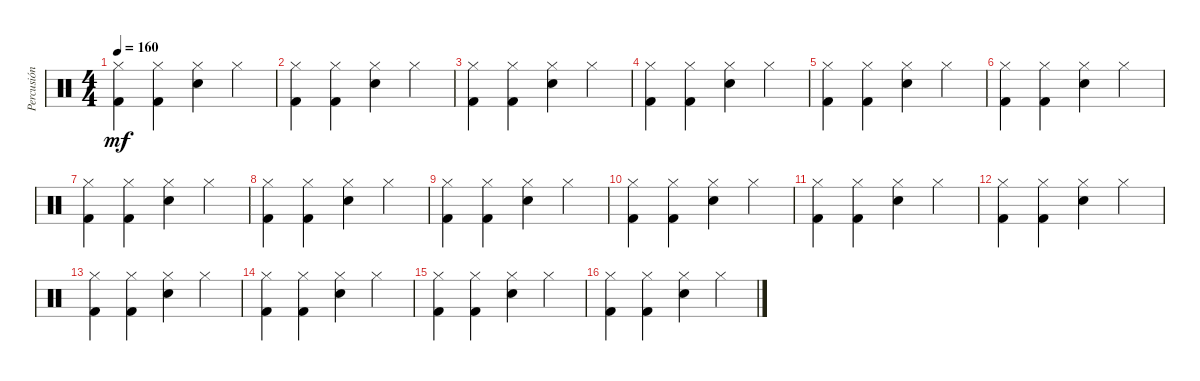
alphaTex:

\track ("Percusión" "Percusión") {instrument percussion}
\staff {score}
\articulation defaults
\ts (4 4)
\tempo 160
\clef neutral
\ks c
("Hi-Hat (closed)" "Kick (hit) 2").4{dy mf} ("Hi-Hat (closed)" "Kick (hit) 2").4 ("Hi-Hat (closed)" "Snare (hit) 2").4 "Hi-Hat (closed)".4 |
("Hi-Hat (closed)" "Kick (hit) 2").4 ("Hi-Hat (closed)" "Kick (hit) 2").4 ("Hi-Hat (closed)" "Snare (hit) 2").4 "Hi-Hat (closed)".4 |
("Hi-Hat (closed)" "Kick (hit) 2").4 ("Hi-Hat (closed)" "Kick (hit) 2").4 ("Hi-Hat (closed)" "Snare (hit) 2").4 "Hi-Hat (closed)".4 |
("Hi-Hat (closed)" "Kick (hit) 2").4 ("Hi-Hat (closed)" "Kick (hit) 2").4 ("Hi-Hat (closed)" "Snare (hit) 2").4 "Hi-Hat (closed)".4 |
("Hi-Hat (closed)" "Kick (hit) 2").4 ("Hi-Hat (closed)" "Kick (hit) 2").4 ("Hi-Hat (closed)" "Snare (hit) 2").4 "Hi-Hat (closed)".4 |
("Hi-Hat (closed)" "Kick (hit) 2").4 ("Hi-Hat (closed)" "Kick (hit) 2").4 ("Hi-Hat (closed)" "Snare (hit) 2").4 "Hi-Hat (closed)".4 |
("Hi-Hat (closed)" "Kick (hit) 2").4 ("Hi-Hat (closed)" "Kick (hit) 2").4 ("Hi-Hat (closed)" "Snare (hit) 2").4 "Hi-Hat (closed)".4 |
("Hi-Hat (closed)" "Kick (hit) 2").4 ("Hi-Hat (closed)" "Kick (hit) 2").4 ("Hi-Hat (closed)" "Snare (hit) 2").4 "Hi-Hat (closed)".4 |
("Hi-Hat (closed)" "Kick (hit) 2").4 ("Hi-Hat (closed)" "Kick (hit) 2").4 ("Hi-Hat (closed)" "Snare (hit) 2").4 "Hi-Hat (closed)".4 |
("Hi-Hat (closed)" "Kick (hit) 2").4 ("Hi-Hat (closed)" "Kick (hit) 2").4 ("Hi-Hat (closed)" "Snare (hit) 2").4 "Hi-Hat (closed)".4 |
("Hi-Hat (closed)" "Kick (hit) 2").4 ("Hi-Hat (closed)" "Kick (hit) 2").4 ("Hi-Hat (closed)" "Snare (hit) 2").4 "Hi-Hat (closed)".4 |
("Hi-Hat (closed)" "Kick (hit) 2").4 ("Hi-Hat (closed)" "Kick (hit) 2").4 ("Hi-Hat (closed)" "Snare (hit) 2").4 "Hi-Hat (closed)".4 |
("Hi-Hat (closed)" "Kick (hit) 2").4 ("Hi-Hat (closed)" "Kick (hit) 2").4 ("Hi-Hat (closed)" "Snare (hit) 2").4 "Hi-Hat (closed)".4 |
("Hi-Hat (closed)" "Kick (hit) 2").4 ("Hi-Hat (closed)" "Kick (hit) 2").4 ("Hi-Hat (closed)" "Snare (hit) 2").4 "Hi-Hat (closed)".4 |
("Hi-Hat (closed)" "Kick (hit) 2").4 ("Hi-Hat (closed)" "Kick (hit) 2").4 ("Hi-Hat (closed)" "Snare (hit) 2").4 "Hi-Hat (closed)".4 |
("Hi-Hat (closed)" "Kick (hit) 2").4 ("Hi-Hat (closed)" "Kick (hit) 2").4 ("Hi-Hat (closed)" "Snare (hit) 2").4 "Hi-Hat (closed)".4
